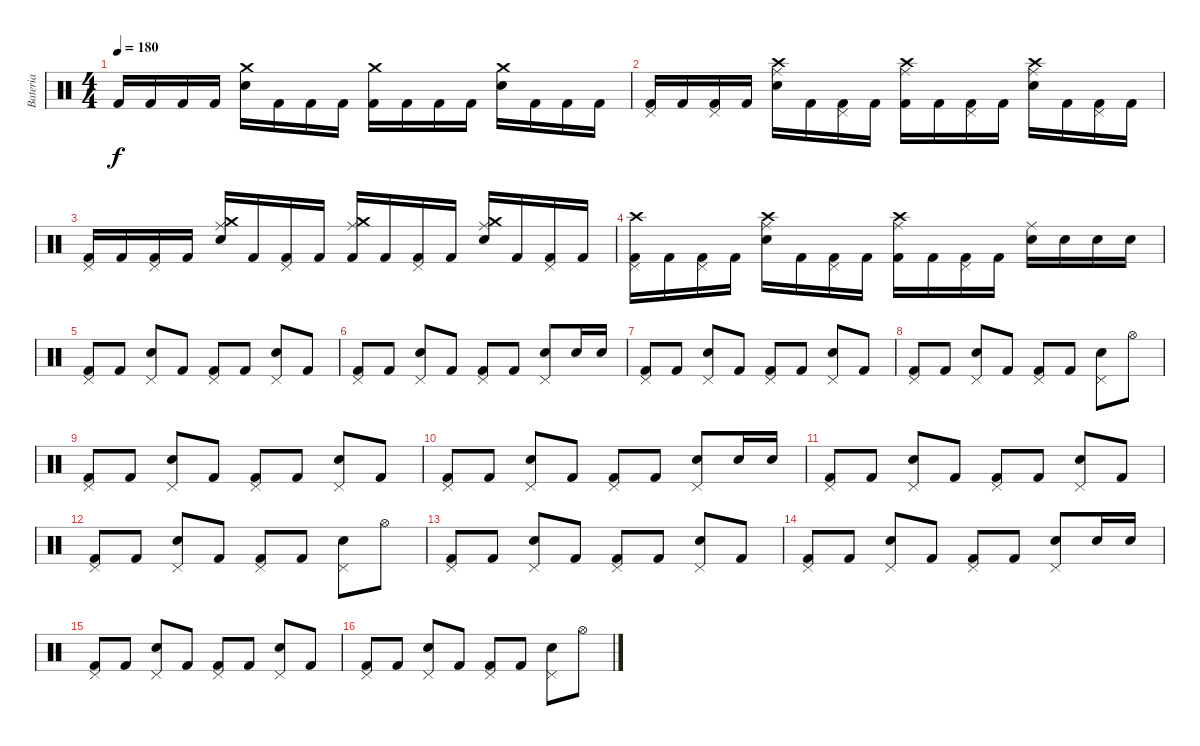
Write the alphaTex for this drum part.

\track ("Bateria" "Bateria") {instrument percussion}
\staff {score}
\articulation defaults
\ts (4 4)
\tempo 180
\clef neutral
\ks c "Kick (hit) 2".16{dy f} "Kick (hit) 2".16 "Kick (hit) 2".16 "Kick (hit) 2".16
("Electric Snare (hit)" "Crash medium (hit)").16 "Kick (hit) 2".16 "Kick (hit) 2".16 "Kick (hit) 2".16 ("Kick (hit) 2" "Crash medium (hit)").16 "Kick (hit) 2".16 "Kick (hit) 2".16 "Kick (hit) 2".16 ("Electric Snare (hit)" "Crash medium (hit)").16 "Kick (hit) 2".16 "Kick (hit) 2".16 "Kick (hit) 2".16 |
("Kick (hit) 2" "Pedal Hi-Hat (hit)").16 "Kick (hit) 2".16 ("Kick (hit) 2" "Pedal Hi-Hat (hit)").16 "Kick (hit) 2".16 ("Electric Snare (hit)" "Ride (middle)" "Crash high (hit)").16 "Kick (hit) 2".16 ("Kick (hit) 2" "Pedal Hi-Hat (hit)").16 "Kick (hit) 2".16 ("Kick (hit) 2" "Ride (middle)" "Crash high (hit)").16 "Kick (hit) 2".16 ("Kick (hit) 2" "Pedal Hi-Hat (hit)").16 "Kick (hit) 2".16 ("Electric Snare (hit)" "Ride (middle)" "Crash high (hit)").16 "Kick (hit) 2".16 ("Kick (hit) 2" "Pedal Hi-Hat (hit)").16 "Kick (hit) 2".16 |
("Kick (hit) 2" "Pedal Hi-Hat (hit)").16 "Kick (hit) 2".16 ("Kick (hit) 2" "Pedal Hi-Hat (hit)").16 "Kick (hit) 2".16 ("Electric Snare (hit)" "Ride (middle)" "Crash medium (hit)").16 "Kick (hit) 2".16 ("Kick (hit) 2" "Pedal Hi-Hat (hit)").16 "Kick (hit) 2".16 ("Kick (hit) 2" "Ride (middle)" "Crash medium (hit)").16 "Kick (hit) 2".16 ("Kick (hit) 2" "Pedal Hi-Hat (hit)").16 "Kick (hit) 2".16 ("Electric Snare (hit)" "Ride (middle)" "Crash medium (hit)").16 "Kick (hit) 2".16 ("Kick (hit) 2" "Pedal Hi-Hat (hit)").16 "Kick (hit) 2".16 |
("Kick (hit) 2" "Pedal Hi-Hat (hit)" "Crash high (hit)").16 "Kick (hit) 2".16 ("Kick (hit) 2" "Pedal Hi-Hat (hit)").16 "Kick (hit) 2".16 ("Electric Snare (hit)" "Ride (middle)" "Crash high (hit)").16 "Kick (hit) 2".16 ("Kick (hit) 2" "Pedal Hi-Hat (hit)").16 "Kick (hit) 2".16 ("Kick (hit) 2" "Ride (middle)" "Crash high (hit)").16 "Kick (hit) 2".16 ("Kick (hit) 2" "Pedal Hi-Hat (hit)").16 "Kick (hit) 2".16 ("Electric Snare (hit)" "Ride (middle)").16 "Electric Snare (hit)".16 "Electric Snare (hit)".16 "Electric Snare (hit)".16 |
("Kick (hit) 2" "Pedal Hi-Hat (hit)").8 "Kick (hit) 2".8 ("Electric Snare (hit)" "Pedal Hi-Hat (hit)").8 "Kick (hit) 2".8 ("Kick (hit) 2" "Pedal Hi-Hat (hit)").8 "Kick (hit) 2".8 ("Electric Snare (hit)" "Pedal Hi-Hat (hit)").8 "Kick (hit) 2".8 |
("Kick (hit) 2" "Pedal Hi-Hat (hit)").8 "Kick (hit) 2".8 ("Electric Snare (hit)" "Pedal Hi-Hat (hit)").8 "Kick (hit) 2".8 ("Kick (hit) 2" "Pedal Hi-Hat (hit)").8 "Kick (hit) 2".8 ("Electric Snare (hit)" "Pedal Hi-Hat (hit)").8 "Electric Snare (hit)".16 "Electric Snare (hit)".16 |
("Kick (hit) 2" "Pedal Hi-Hat (hit)").8 "Kick (hit) 2".8 ("Electric Snare (hit)" "Pedal Hi-Hat (hit)").8 "Kick (hit) 2".8 ("Kick (hit) 2" "Pedal Hi-Hat (hit)").8 "Kick (hit) 2".8 ("Electric Snare (hit)" "Pedal Hi-Hat (hit)").8 "Kick (hit) 2".8 |
("Kick (hit) 2" "Pedal Hi-Hat (hit)").8 "Kick (hit) 2".8 ("Electric Snare (hit)" "Pedal Hi-Hat (hit)").8 "Kick (hit) 2".8 ("Kick (hit) 2" "Pedal Hi-Hat (hit)").8 "Kick (hit) 2".8 ("Electric Snare (hit)" "Pedal Hi-Hat (hit)").8 "Hi-Hat (open)".8 |
("Kick (hit) 2" "Pedal Hi-Hat (hit)").8 "Kick (hit) 2".8 ("Electric Snare (hit)" "Pedal Hi-Hat (hit)").8 "Kick (hit) 2".8 ("Kick (hit) 2" "Pedal Hi-Hat (hit)").8 "Kick (hit) 2".8 ("Electric Snare (hit)" "Pedal Hi-Hat (hit)").8 "Kick (hit) 2".8 |
("Kick (hit) 2" "Pedal Hi-Hat (hit)").8 "Kick (hit) 2".8 ("Electric Snare (hit)" "Pedal Hi-Hat (hit)").8 "Kick (hit) 2".8 ("Kick (hit) 2" "Pedal Hi-Hat (hit)").8 "Kick (hit) 2".8 ("Electric Snare (hit)" "Pedal Hi-Hat (hit)").8 "Electric Snare (hit)".16 "Electric Snare (hit)".16 |
("Kick (hit) 2" "Pedal Hi-Hat (hit)").8 "Kick (hit) 2".8 ("Electric Snare (hit)" "Pedal Hi-Hat (hit)").8 "Kick (hit) 2".8 ("Kick (hit) 2" "Pedal Hi-Hat (hit)").8 "Kick (hit) 2".8 ("Electric Snare (hit)" "Pedal Hi-Hat (hit)").8 "Kick (hit) 2".8 |
("Kick (hit) 2" "Pedal Hi-Hat (hit)").8 "Kick (hit) 2".8 ("Electric Snare (hit)" "Pedal Hi-Hat (hit)").8 "Kick (hit) 2".8 ("Kick (hit) 2" "Pedal Hi-Hat (hit)").8 "Kick (hit) 2".8 ("Electric Snare (hit)" "Pedal Hi-Hat (hit)").8 "Hi-Hat (open)".8 |
("Kick (hit) 2" "Pedal Hi-Hat (hit)").8 "Kick (hit) 2".8 ("Electric Snare (hit)" "Pedal Hi-Hat (hit)").8 "Kick (hit) 2".8 ("Kick (hit) 2" "Pedal Hi-Hat (hit)").8 "Kick (hit) 2".8 ("Electric Snare (hit)" "Pedal Hi-Hat (hit)").8 "Kick (hit) 2".8 |
("Kick (hit) 2" "Pedal Hi-Hat (hit)").8 "Kick (hit) 2".8 ("Electric Snare (hit)" "Pedal Hi-Hat (hit)").8 "Kick (hit) 2".8 ("Kick (hit) 2" "Pedal Hi-Hat (hit)").8 "Kick (hit) 2".8 ("Electric Snare (hit)" "Pedal Hi-Hat (hit)").8 "Electric Snare (hit)".16 "Electric Snare (hit)".16 |
("Kick (hit) 2" "Pedal Hi-Hat (hit)").8 "Kick (hit) 2".8 ("Electric Snare (hit)" "Pedal Hi-Hat (hit)").8 "Kick (hit) 2".8 ("Kick (hit) 2" "Pedal Hi-Hat (hit)").8 "Kick (hit) 2".8 ("Electric Snare (hit)" "Pedal Hi-Hat (hit)").8 "Kick (hit) 2".8 |
("Kick (hit) 2" "Pedal Hi-Hat (hit)").8 "Kick (hit) 2".8 ("Electric Snare (hit)" "Pedal Hi-Hat (hit)").8 "Kick (hit) 2".8 ("Kick (hit) 2" "Pedal Hi-Hat (hit)").8 "Kick (hit) 2".8 ("Electric Snare (hit)" "Pedal Hi-Hat (hit)").8 "Hi-Hat (open)".8
